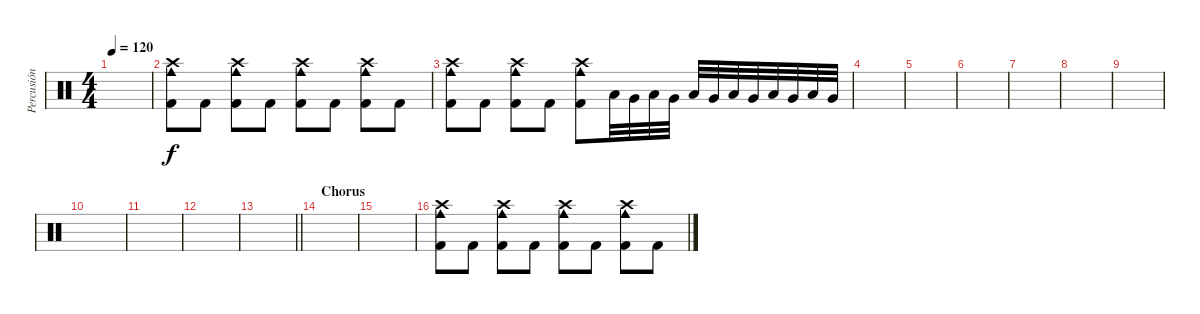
\track ("Percusión" "Percusión") {instrument percussion}
\staff {score}
\articulation defaults
\ts (4 4)
\tempo 120
\clef neutral
\ks c
|
("Crash high (hit)" "Cowbell medium (hit)" "Kick (hit) 2").8 "Kick (hit) 2".8 ("Crash high (hit)" "Cowbell medium (hit)" "Kick (hit) 2").8 "Kick (hit) 2".8 ("Crash high (hit)" "Cowbell medium (hit)" "Kick (hit) 2").8 "Kick (hit) 2".8 ("Crash high (hit)" "Cowbell medium (hit)" "Kick (hit) 2").8 "Kick (hit) 2".8 |
("Crash high (hit)" "Cowbell medium (hit)" "Kick (hit) 2").8 "Kick (hit) 2".8 ("Crash high (hit)" "Cowbell medium (hit)" "Kick (hit) 2").8 "Kick (hit) 2".8 ("Crash high (hit)" "Cowbell medium (hit)" "Kick (hit) 2").8 "Low Floor Tom (hit)".32 "Very Low Tom (hit)".32 "Low Floor Tom (hit)".32 "Very Low Tom (hit)".32 "Low Floor Tom (hit)".32 "Very Low Tom (hit)".32 "Low Floor Tom (hit)".32 "Very Low Tom (hit)".32 "Low Floor Tom (hit)".32 "Very Low Tom (hit)".32 "Low Floor Tom (hit)".32 "Very Low Tom (hit)".32 |
|
|
|
|
|
|
|
|
|
\barLineRight lightlight
|
\section ("" "Chorus")
|
|
("Crash high (hit)" "Cowbell medium (hit)" "Kick (hit) 2").8 "Kick (hit) 2".8 ("Crash high (hit)" "Cowbell medium (hit)" "Kick (hit) 2").8 "Kick (hit) 2".8 ("Crash high (hit)" "Cowbell medium (hit)" "Kick (hit) 2").8 "Kick (hit) 2".8 ("Crash high (hit)" "Cowbell medium (hit)" "Kick (hit) 2").8 "Kick (hit) 2".8
